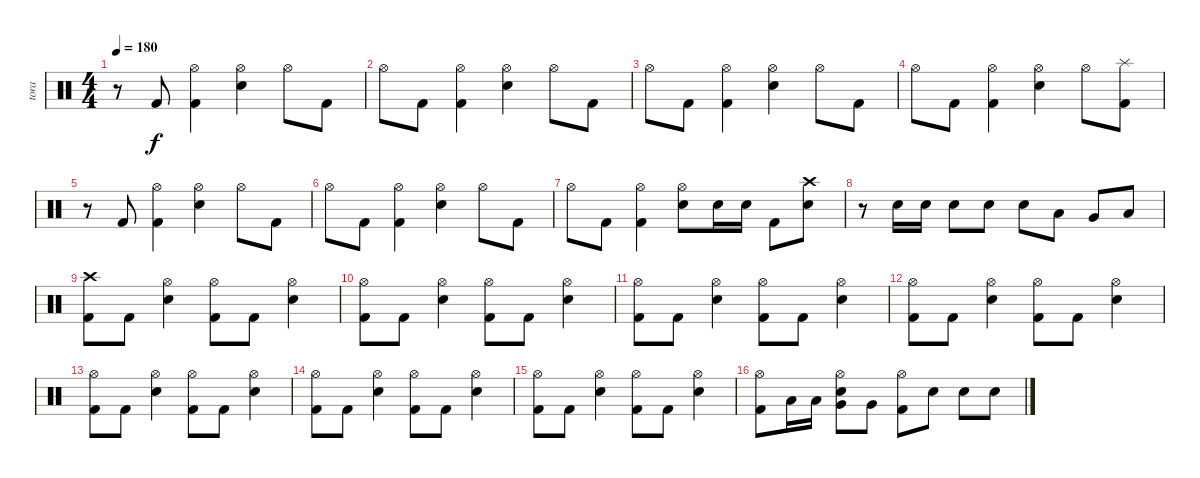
\track ("tora" "tora") {instrument percussion}
\staff {score}
\articulation defaults
\ts (4 4)
\tempo 180
\clef neutral
\ks c
r.8{dy f} "Kick (hit) 2".8 ("Hi-Hat (open)" "Kick (hit) 2").4 ("Hi-Hat (open)" "Snare (hit) 2").4 "Hi-Hat (open)".8 "Kick (hit) 2".8 |
"Hi-Hat (open)".8 "Kick (hit) 2".8 ("Hi-Hat (open)" "Kick (hit) 2").4 ("Hi-Hat (open)" "Snare (hit) 2").4 "Hi-Hat (open)".8 "Kick (hit) 2".8 |
"Hi-Hat (open)".8 "Kick (hit) 2".8 ("Hi-Hat (open)" "Kick (hit) 2").4 ("Hi-Hat (open)" "Snare (hit) 2").4 "Hi-Hat (open)".8 "Kick (hit) 2".8 |
"Hi-Hat (open)".8 "Kick (hit) 2".8 ("Hi-Hat (open)" "Kick (hit) 2").4 ("Hi-Hat (open)" "Snare (hit) 2").4 "Hi-Hat (open)".8 ("Splash (hit)" "Kick (hit) 2").8 |
r.8 "Kick (hit) 2".8 ("Hi-Hat (open)" "Kick (hit) 2").4 ("Hi-Hat (open)" "Snare (hit) 2").4 "Hi-Hat (open)".8 "Kick (hit) 2".8 |
"Hi-Hat (open)".8 "Kick (hit) 2".8 ("Hi-Hat (open)" "Kick (hit) 2").4 ("Hi-Hat (open)" "Snare (hit) 2").4 "Hi-Hat (open)".8 "Kick (hit) 2".8 |
"Hi-Hat (open)".8 "Kick (hit) 2".8 ("Hi-Hat (open)" "Kick (hit) 2").4 ("Hi-Hat (open)" "Snare (hit) 2").8 "Snare (hit) 2".16 "Snare (hit) 2".16 "Kick (hit) 2".8 ("Crash high (hit)" "Snare (hit) 2").8 |
r.8 "Snare (hit) 2".16 "Snare (hit) 2".16 "Snare (hit) 2".8 "Snare (hit) 2".8 "Snare (hit) 2".8 "Low Tom (hit)".8 "Very Low Tom (hit)".8 "Low Floor Tom (hit)".8 |
("Crash high (hit)" "Kick (hit) 2").8 "Kick (hit) 2".8 ("Hi-Hat (open)" "Snare (hit) 2").4 ("Hi-Hat (open)" "Kick (hit) 2").8 "Kick (hit) 2".8 ("Hi-Hat (open)" "Snare (hit) 2").4 |
("Hi-Hat (open)" "Kick (hit) 2").8 "Kick (hit) 2".8 ("Hi-Hat (open)" "Snare (hit) 2").4 ("Hi-Hat (open)" "Kick (hit) 2").8 "Kick (hit) 2".8 ("Hi-Hat (open)" "Snare (hit) 2").4 |
("Hi-Hat (open)" "Kick (hit) 2").8 "Kick (hit) 2".8 ("Hi-Hat (open)" "Snare (hit) 2").4 ("Hi-Hat (open)" "Kick (hit) 2").8 "Kick (hit) 2".8 ("Hi-Hat (open)" "Snare (hit) 2").4 |
("Hi-Hat (open)" "Kick (hit) 2").8 "Kick (hit) 2".8 ("Hi-Hat (open)" "Snare (hit) 2").4 ("Hi-Hat (open)" "Kick (hit) 2").8 "Kick (hit) 2".8 ("Hi-Hat (open)" "Snare (hit) 2").4 |
("Hi-Hat (open)" "Kick (hit) 2").8 "Kick (hit) 2".8 ("Hi-Hat (open)" "Snare (hit) 2").4 ("Hi-Hat (open)" "Kick (hit) 2").8 "Kick (hit) 2".8 ("Hi-Hat (open)" "Snare (hit) 2").4 |
("Hi-Hat (open)" "Kick (hit) 2").8 "Kick (hit) 2".8 ("Hi-Hat (open)" "Snare (hit) 2").4 ("Hi-Hat (open)" "Kick (hit) 2").8 "Kick (hit) 2".8 ("Hi-Hat (open)" "Snare (hit) 2").4 |
("Hi-Hat (open)" "Kick (hit) 2").8 "Kick (hit) 2".8 ("Hi-Hat (open)" "Snare (hit) 2").4 ("Hi-Hat (open)" "Kick (hit) 2").8 "Kick (hit) 2".8 ("Hi-Hat (open)" "Snare (hit) 2").4 |
("Hi-Hat (open)" "Kick (hit) 2").8 "Low Tom (hit)".16 "Low Tom (hit)".16 ("Hi-Hat (open)" "Snare (hit) 2" "Very Low Tom (hit)").8 "Very Low Tom (hit)".8 ("Hi-Hat (open)" "Kick (hit) 2").8 "Snare (hit) 2".8 "Snare (hit) 2".8 "Snare (hit) 2".8
